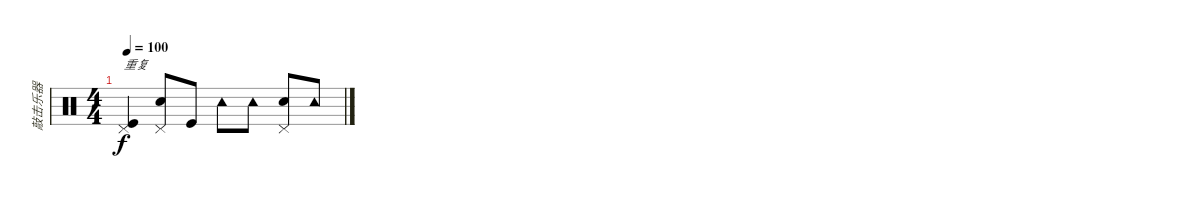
\track ("敲击乐器" "敲击乐器") {instrument percussion}
\staff {score}
\articulation defaults
\ts (4 4)
\tempo 100
\clef neutral
\ks c
("Pedal Hi-Hat (hit)" "Kick (hit)").4{txt "重复" dy f} ("Pedal Hi-Hat (hit)" "Snare (hit) 2").8 "Kick (hit)".8 "Tambourine (hit)".8 "Tambourine (hit)".8 ("Pedal Hi-Hat (hit)" "Snare (hit) 2").8 "Tambourine (hit)".8
